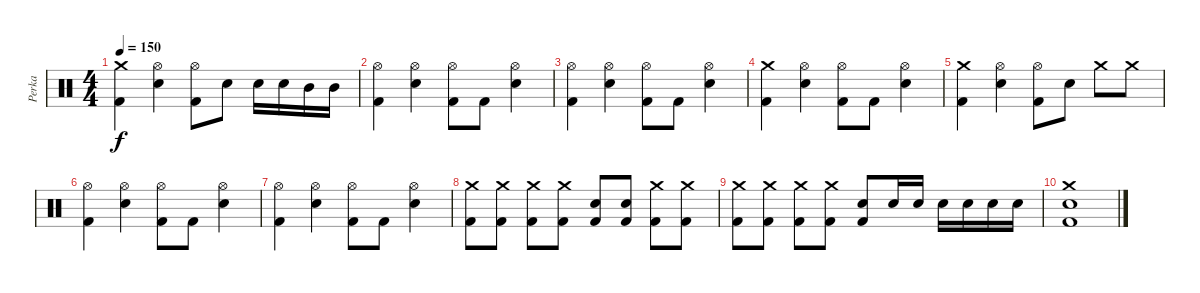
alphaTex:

\track ("Perka" "Perka") {instrument percussion}
\staff {score}
\articulation defaults
\ts (4 4)
\tempo 150
\clef neutral
\ks c
("Crash medium (hit)" "Kick (hit) 2").4{dy f} ("Hi-Hat (open)" "Snare (hit) 2").4 ("Hi-Hat (open)" "Kick (hit) 2").8 "Snare (hit) 2".8 "Snare (hit) 2".16 "Snare (hit) 2".16 "Mid Tom (hit)".16 "Mid Tom (hit)".16 |
("Hi-Hat (open)" "Kick (hit) 2").4 ("Hi-Hat (open)" "Snare (hit) 2").4 ("Hi-Hat (open)" "Kick (hit) 2").8 "Kick (hit) 2".8 ("Hi-Hat (open)" "Snare (hit) 2").4 |
("Hi-Hat (open)" "Kick (hit) 2").4 ("Hi-Hat (open)" "Snare (hit) 2").4 ("Hi-Hat (open)" "Kick (hit) 2").8 "Kick (hit) 2".8 ("Hi-Hat (open)" "Snare (hit) 2").4 |
("Crash medium (hit)" "Kick (hit) 2").4 ("Hi-Hat (open)" "Snare (hit) 2").4 ("Hi-Hat (open)" "Kick (hit) 2").8 "Kick (hit) 2".8 ("Hi-Hat (open)" "Snare (hit) 2").4 |
("Crash medium (hit)" "Kick (hit) 2").4 ("Hi-Hat (open)" "Snare (hit) 2").4 ("Hi-Hat (open)" "Kick (hit) 2").8 "Snare (hit) 2".8 "Crash medium (hit)".8 "Crash medium (hit)".8 |
("Hi-Hat (open)" "Kick (hit) 2").4 ("Hi-Hat (open)" "Snare (hit) 2").4 ("Hi-Hat (open)" "Kick (hit) 2").8 "Kick (hit) 2".8 ("Hi-Hat (open)" "Snare (hit) 2").4 |
("Hi-Hat (open)" "Kick (hit) 2").4 ("Hi-Hat (open)" "Snare (hit) 2").4 ("Hi-Hat (open)" "Kick (hit) 2").8 "Kick (hit) 2".8 ("Hi-Hat (open)" "Snare (hit) 2").4 |
("Crash medium (hit)" "Kick (hit) 2").8 ("Crash medium (hit)" "Kick (hit) 2").8 ("Crash medium (hit)" "Kick (hit) 2").8 ("Crash medium (hit)" "Kick (hit) 2").8 ("Snare (hit) 2" "Kick (hit) 2").8 ("Snare (hit) 2" "Kick (hit) 2").8 ("Crash medium (hit)" "Kick (hit) 2").8 ("Crash medium (hit)" "Kick (hit) 2").8 |
("Crash medium (hit)" "Kick (hit) 2").8 ("Crash medium (hit)" "Kick (hit) 2").8 ("Crash medium (hit)" "Kick (hit) 2").8 ("Crash medium (hit)" "Kick (hit) 2").8 ("Snare (hit) 2" "Kick (hit) 2").8 "Snare (hit) 2".16 "Snare (hit) 2".16 "Snare (hit) 2".16 "Snare (hit) 2".16 "Snare (hit) 2".16 "Snare (hit) 2".16 |
("Snare (hit) 2" "Kick (hit) 2" "Crash medium (hit)").1
